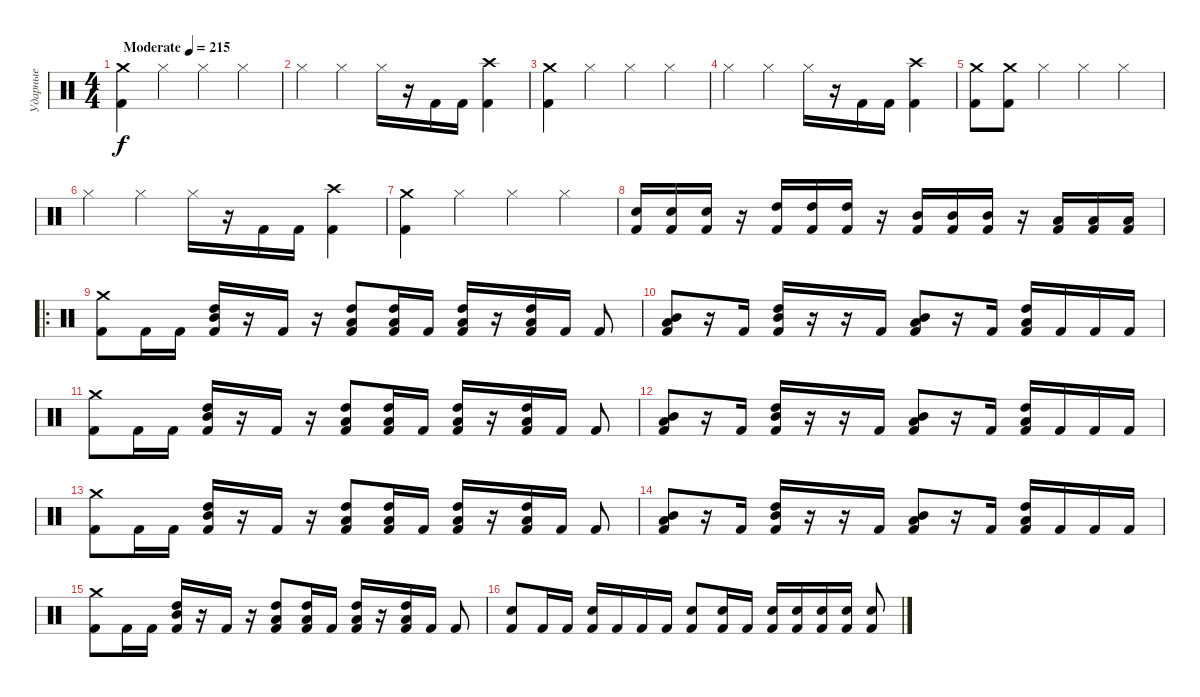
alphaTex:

\track ("Ударные" "Ударные") {instrument percussion}
\staff {score}
\articulation defaults
\ts (4 4)
\tempo (215 "Moderate")
\clef neutral
\ks c
("Crash medium (hit)" "Kick (hit) 2").4{dy f} "Hi-Hat (closed)".4 "Hi-Hat (closed)".4 "Hi-Hat (closed)".4 |
"Hi-Hat (closed)".4 "Hi-Hat (closed)".4 "Hi-Hat (closed)".16 r.16 "Kick (hit) 2".16 "Kick (hit) 2".16 ("Crash high (hit)" "Kick (hit) 2").4 |
("Crash medium (hit)" "Kick (hit) 2").4 "Hi-Hat (closed)".4 "Hi-Hat (closed)".4 "Hi-Hat (closed)".4 |
"Hi-Hat (closed)".4 "Hi-Hat (closed)".4 "Hi-Hat (closed)".16 r.16 "Kick (hit) 2".16 "Kick (hit) 2".16 ("Crash high (hit)" "Kick (hit) 2").4 |
("Crash medium (hit)" "Kick (hit) 2").8 ("Crash medium (hit)" "Kick (hit) 2").8 "Hi-Hat (closed)".4 "Hi-Hat (closed)".4 "Hi-Hat (closed)".4 |
"Hi-Hat (closed)".4 "Hi-Hat (closed)".4 "Hi-Hat (closed)".16 r.16 "Kick (hit) 2".16 "Kick (hit) 2".16 ("Crash high (hit)" "Kick (hit) 2").4 |
("Crash medium (hit)" "Kick (hit) 2").4 "Hi-Hat (closed)".4 "Hi-Hat (closed)".4 "Hi-Hat (closed)".4 |
("Snare (hit) 2" "Kick (hit) 2").16 ("Snare (hit) 2" "Kick (hit) 2").16 ("Snare (hit) 2" "Kick (hit) 2").16 r.16 ("High Tom (hit)" "Kick (hit) 2").16 ("High Tom (hit)" "Kick (hit) 2").16 ("High Tom (hit)" "Kick (hit) 2").16 r.16 ("Mid Tom (hit)" "Kick (hit) 2").16 ("Mid Tom (hit)" "Kick (hit) 2").16 ("Mid Tom (hit)" "Kick (hit) 2").16 r.16 ("Low Tom (hit)" "Kick (hit) 2").16 ("Low Tom (hit)" "Kick (hit) 2").16 ("Low Tom (hit)" "Kick (hit) 2").16 |
\ro
("Crash medium (hit)" "Kick (hit) 2").8 "Kick (hit) 2".16 "Kick (hit) 2".16 ("High Tom (hit)" "Mid Tom (hit)" "Kick (hit) 2").16 r.16 "Kick (hit) 2".16 r.16 ("High Tom (hit)" "Low Tom (hit)" "Kick (hit) 2").8 ("High Tom (hit)" "Low Tom (hit)" "Kick (hit) 2").16 "Kick (hit) 2".16 ("Low Tom (hit)" "High Tom (hit)" "Kick (hit) 2").16 r.16 ("High Tom (hit)" "Low Tom (hit)" "Kick (hit) 2").16 "Kick (hit) 2".16 "Kick (hit) 2".8 |
("Mid Tom (hit)" "Low Tom (hit)" "Kick (hit) 2").8 r.16 "Kick (hit) 2".16 ("High Tom (hit)" "Mid Tom (hit)" "Kick (hit) 2").16 r.16 r.16 "Kick (hit) 2".16 ("Mid Tom (hit)" "Low Tom (hit)" "Kick (hit) 2").8 r.16 "Kick (hit) 2".16 ("Low Tom (hit)" "High Tom (hit)" "Kick (hit) 2").16 "Kick (hit) 2".16 "Kick (hit) 2".16 "Kick (hit) 2".16 |
("Crash medium (hit)" "Kick (hit) 2").8 "Kick (hit) 2".16 "Kick (hit) 2".16 ("High Tom (hit)" "Mid Tom (hit)" "Kick (hit) 2").16 r.16 "Kick (hit) 2".16 r.16 ("High Tom (hit)" "Low Tom (hit)" "Kick (hit) 2").8 ("High Tom (hit)" "Low Tom (hit)" "Kick (hit) 2").16 "Kick (hit) 2".16 ("Low Tom (hit)" "High Tom (hit)" "Kick (hit) 2").16 r.16 ("High Tom (hit)" "Low Tom (hit)" "Kick (hit) 2").16 "Kick (hit) 2".16 "Kick (hit) 2".8 |
("Mid Tom (hit)" "Low Tom (hit)" "Kick (hit) 2").8 r.16 "Kick (hit) 2".16 ("High Tom (hit)" "Mid Tom (hit)" "Kick (hit) 2").16 r.16 r.16 "Kick (hit) 2".16 ("Mid Tom (hit)" "Low Tom (hit)" "Kick (hit) 2").8 r.16 "Kick (hit) 2".16 ("Low Tom (hit)" "High Tom (hit)" "Kick (hit) 2").16 "Kick (hit) 2".16 "Kick (hit) 2".16 "Kick (hit) 2".16 |
("Crash medium (hit)" "Kick (hit) 2").8 "Kick (hit) 2".16 "Kick (hit) 2".16 ("High Tom (hit)" "Mid Tom (hit)" "Kick (hit) 2").16 r.16 "Kick (hit) 2".16 r.16 ("High Tom (hit)" "Low Tom (hit)" "Kick (hit) 2").8 ("High Tom (hit)" "Low Tom (hit)" "Kick (hit) 2").16 "Kick (hit) 2".16 ("Low Tom (hit)" "High Tom (hit)" "Kick (hit) 2").16 r.16 ("High Tom (hit)" "Low Tom (hit)" "Kick (hit) 2").16 "Kick (hit) 2".16 "Kick (hit) 2".8 |
("Mid Tom (hit)" "Low Tom (hit)" "Kick (hit) 2").8 r.16 "Kick (hit) 2".16 ("High Tom (hit)" "Mid Tom (hit)" "Kick (hit) 2").16 r.16 r.16 "Kick (hit) 2".16 ("Mid Tom (hit)" "Low Tom (hit)" "Kick (hit) 2").8 r.16 "Kick (hit) 2".16 ("Low Tom (hit)" "High Tom (hit)" "Kick (hit) 2").16 "Kick (hit) 2".16 "Kick (hit) 2".16 "Kick (hit) 2".16 |
("Crash medium (hit)" "Kick (hit) 2").8 "Kick (hit) 2".16 "Kick (hit) 2".16 ("High Tom (hit)" "Mid Tom (hit)" "Kick (hit) 2").16 r.16 "Kick (hit) 2".16 r.16 ("High Tom (hit)" "Low Tom (hit)" "Kick (hit) 2").8 ("High Tom (hit)" "Low Tom (hit)" "Kick (hit) 2").16 "Kick (hit) 2".16 ("Low Tom (hit)" "High Tom (hit)" "Kick (hit) 2").16 r.16 ("High Tom (hit)" "Low Tom (hit)" "Kick (hit) 2").16 "Kick (hit) 2".16 "Kick (hit) 2".8 |
("Snare (hit) 2" "Kick (hit) 2").8 "Kick (hit) 2".16 "Kick (hit) 2".16 ("Snare (hit) 2" "Kick (hit) 2").16 "Kick (hit) 2".16 "Kick (hit) 2".16 "Kick (hit) 2".16 ("Snare (hit) 2" "Kick (hit) 2").8 ("Snare (hit) 2" "Kick (hit) 2").16 "Kick (hit) 2".16 ("Snare (hit) 2" "Kick (hit) 2").16 ("Snare (hit) 2" "Kick (hit) 2").16 ("Snare (hit) 2" "Kick (hit) 2").16 ("Snare (hit) 2" "Kick (hit) 2").16 ("Snare (hit) 2" "Kick (hit) 2").8
